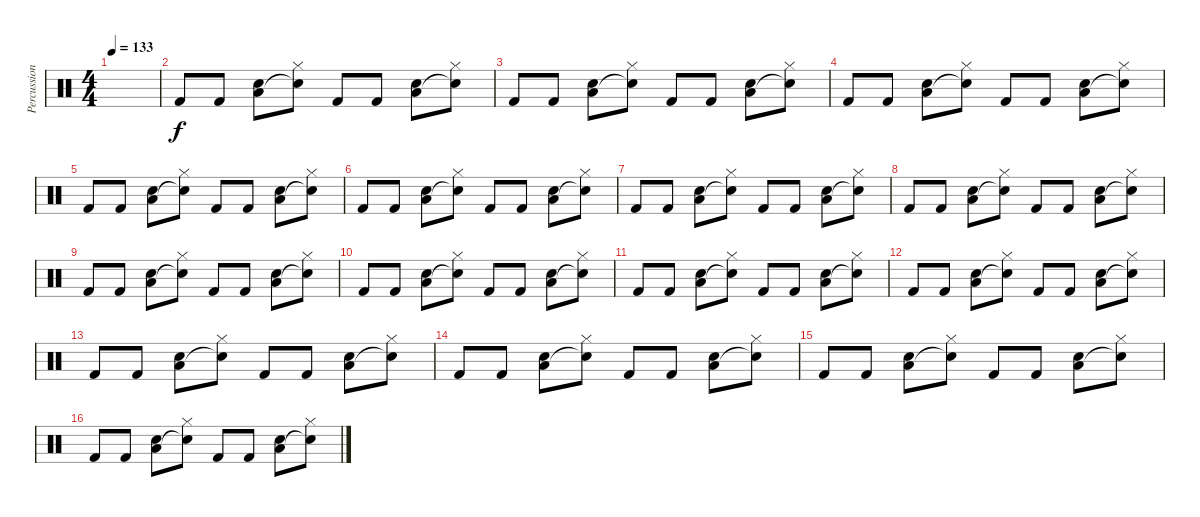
\track ("Percussions" "Percussion") {instrument percussion}
\staff {score}
\articulation defaults
\ts (4 4)
\tempo 133
\clef neutral
\ks c
|
"Kick (hit) 2".8 "Kick (hit) 2".8 ("Snare (hit) 2" "Low Floor Tom (hit)").8 ("Hi-Hat (closed)" "Snare (hit)"{t}).8 "Kick (hit) 2".8 "Kick (hit) 2".8 ("Snare (hit) 2" "Low Floor Tom (hit)").8 ("Hi-Hat (closed)" "Snare (hit)"{t}).8 |
"Kick (hit) 2".8 "Kick (hit) 2".8 ("Snare (hit) 2" "Low Floor Tom (hit)").8 ("Hi-Hat (closed)" "Snare (hit)"{t}).8 "Kick (hit) 2".8 "Kick (hit) 2".8 ("Snare (hit) 2" "Low Floor Tom (hit)").8 ("Hi-Hat (closed)" "Snare (hit)"{t}).8 |
"Kick (hit) 2".8 "Kick (hit) 2".8 ("Snare (hit) 2" "Low Floor Tom (hit)").8 ("Hi-Hat (closed)" "Snare (hit)"{t}).8 "Kick (hit) 2".8 "Kick (hit) 2".8 ("Snare (hit) 2" "Low Floor Tom (hit)").8 ("Hi-Hat (closed)" "Snare (hit)"{t}).8 |
"Kick (hit) 2".8 "Kick (hit) 2".8 ("Snare (hit) 2" "Low Floor Tom (hit)").8 ("Hi-Hat (closed)" "Snare (hit)"{t}).8 "Kick (hit) 2".8 "Kick (hit) 2".8 ("Snare (hit) 2" "Low Floor Tom (hit)").8 ("Hi-Hat (closed)" "Snare (hit)"{t}).8 |
"Kick (hit) 2".8 "Kick (hit) 2".8 ("Snare (hit) 2" "Low Floor Tom (hit)").8 ("Hi-Hat (closed)" "Snare (hit)"{t}).8 "Kick (hit) 2".8 "Kick (hit) 2".8 ("Snare (hit) 2" "Low Floor Tom (hit)").8 ("Hi-Hat (closed)" "Snare (hit)"{t}).8 |
"Kick (hit) 2".8 "Kick (hit) 2".8 ("Snare (hit) 2" "Low Floor Tom (hit)").8 ("Hi-Hat (closed)" "Snare (hit)"{t}).8 "Kick (hit) 2".8 "Kick (hit) 2".8 ("Snare (hit) 2" "Low Floor Tom (hit)").8 ("Hi-Hat (closed)" "Snare (hit)"{t}).8 |
"Kick (hit) 2".8 "Kick (hit) 2".8 ("Snare (hit) 2" "Low Floor Tom (hit)").8 ("Hi-Hat (closed)" "Snare (hit)"{t}).8 "Kick (hit) 2".8 "Kick (hit) 2".8 ("Snare (hit) 2" "Low Floor Tom (hit)").8 ("Hi-Hat (closed)" "Snare (hit)"{t}).8 |
"Kick (hit) 2".8 "Kick (hit) 2".8 ("Snare (hit) 2" "Low Floor Tom (hit)").8 ("Hi-Hat (closed)" "Snare (hit)"{t}).8 "Kick (hit) 2".8 "Kick (hit) 2".8 ("Snare (hit) 2" "Low Floor Tom (hit)").8 ("Hi-Hat (closed)" "Snare (hit)"{t}).8 |
"Kick (hit) 2".8 "Kick (hit) 2".8 ("Snare (hit) 2" "Low Floor Tom (hit)").8 ("Hi-Hat (closed)" "Snare (hit)"{t}).8 "Kick (hit) 2".8 "Kick (hit) 2".8 ("Snare (hit) 2" "Low Floor Tom (hit)").8 ("Hi-Hat (closed)" "Snare (hit)"{t}).8 |
"Kick (hit) 2".8 "Kick (hit) 2".8 ("Snare (hit) 2" "Low Floor Tom (hit)").8 ("Hi-Hat (closed)" "Snare (hit)"{t}).8 "Kick (hit) 2".8 "Kick (hit) 2".8 ("Snare (hit) 2" "Low Floor Tom (hit)").8 ("Hi-Hat (closed)" "Snare (hit)"{t}).8 |
"Kick (hit) 2".8 "Kick (hit) 2".8 ("Snare (hit) 2" "Low Floor Tom (hit)").8 ("Hi-Hat (closed)" "Snare (hit)"{t}).8 "Kick (hit) 2".8 "Kick (hit) 2".8 ("Snare (hit) 2" "Low Floor Tom (hit)").8 ("Hi-Hat (closed)" "Snare (hit)"{t}).8 |
"Kick (hit) 2".8 "Kick (hit) 2".8 ("Snare (hit) 2" "Low Floor Tom (hit)").8 ("Hi-Hat (closed)" "Snare (hit)"{t}).8 "Kick (hit) 2".8 "Kick (hit) 2".8 ("Snare (hit) 2" "Low Floor Tom (hit)").8 ("Hi-Hat (closed)" "Snare (hit)"{t}).8 |
"Kick (hit) 2".8 "Kick (hit) 2".8 ("Snare (hit) 2" "Low Floor Tom (hit)").8 ("Hi-Hat (closed)" "Snare (hit)"{t}).8 "Kick (hit) 2".8 "Kick (hit) 2".8 ("Snare (hit) 2" "Low Floor Tom (hit)").8 ("Hi-Hat (closed)" "Snare (hit)"{t}).8 |
"Kick (hit) 2".8 "Kick (hit) 2".8 ("Snare (hit) 2" "Low Floor Tom (hit)").8 ("Hi-Hat (closed)" "Snare (hit)"{t}).8 "Kick (hit) 2".8 "Kick (hit) 2".8 ("Snare (hit) 2" "Low Floor Tom (hit)").8 ("Hi-Hat (closed)" "Snare (hit)"{t}).8 |
"Kick (hit) 2".8 "Kick (hit) 2".8 ("Snare (hit) 2" "Low Floor Tom (hit)").8 ("Hi-Hat (closed)" "Snare (hit)"{t}).8 "Kick (hit) 2".8 "Kick (hit) 2".8 ("Snare (hit) 2" "Low Floor Tom (hit)").8 ("Hi-Hat (closed)" "Snare (hit)"{t}).8
